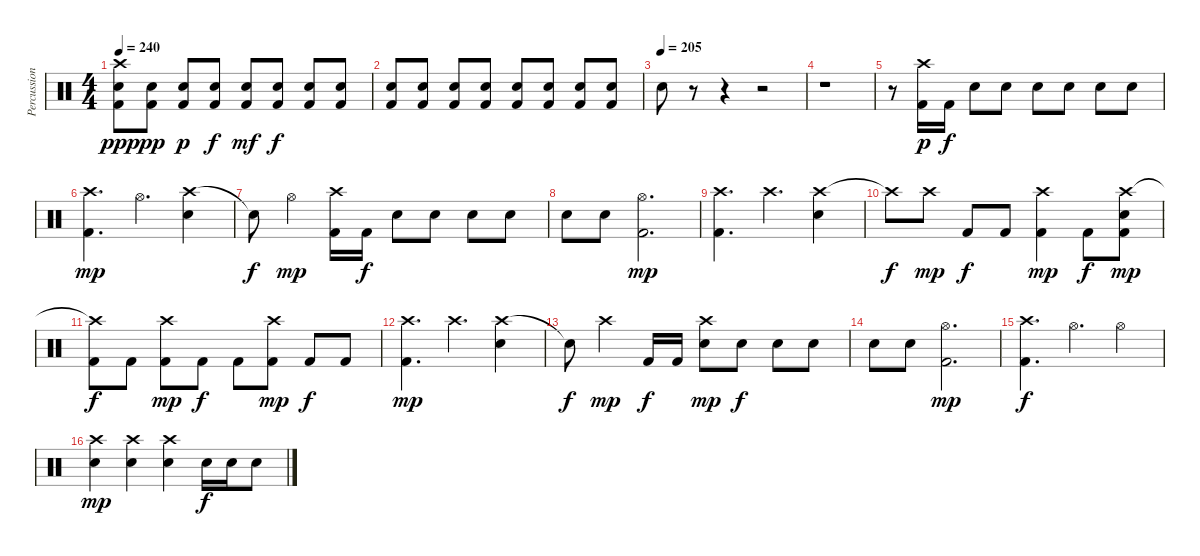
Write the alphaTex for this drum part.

\track ("Percussion" "Percussion") {instrument percussion}
\staff {score}
\articulation defaults
\ts (4 4)
\tempo 240
\clef neutral
\ks c
("Crash high (hit)" "Electric Snare (hit)" "Kick (hit) 2").8{dy ppp} ("Electric Snare (hit)" "Kick (hit) 2").8{dy pp} ("Electric Snare (hit)" "Kick (hit) 2").8{dy p} ("Electric Snare (hit)" "Kick (hit) 2").8{dy f} ("Electric Snare (hit)" "Kick (hit) 2").8{dy mf} ("Electric Snare (hit)" "Kick (hit) 2").8{dy f} ("Electric Snare (hit)" "Kick (hit) 2").8 ("Electric Snare (hit)" "Kick (hit) 2").8 |
("Electric Snare (hit)" "Kick (hit) 2").8 ("Electric Snare (hit)" "Kick (hit) 2").8 ("Electric Snare (hit)" "Kick (hit) 2").8 ("Electric Snare (hit)" "Kick (hit) 2").8 ("Electric Snare (hit)" "Kick (hit) 2").8 ("Electric Snare (hit)" "Kick (hit) 2").8 ("Electric Snare (hit)" "Kick (hit) 2").8 ("Electric Snare (hit)" "Kick (hit) 2").8 |
\tempo (205)
"Electric Snare (hit)".8 r.8 r.4 r.2 |
r.1 |
r.8 ("Crash high (hit)" "Kick (hit) 2").16{dy p} "Kick (hit) 2".16{dy f} "Electric Snare (hit)".8 "Electric Snare (hit)".8 "Electric Snare (hit)".8 "Electric Snare (hit)".8 "Electric Snare (hit)".8 "Electric Snare (hit)".8 |
("Crash high (hit)" "Kick (hit) 2").4{d dy mp} "Hi-Hat (open)".4{d} ("Crash high (hit)" "Electric Snare (hit)").4 |
"Electric Snare (hit)"{t}.8{dy f} "Hi-Hat (open)".4{dy mp} ("Crash high (hit)" "Kick (hit) 2").16 "Kick (hit) 2".16{dy f} "Electric Snare (hit)".8 "Electric Snare (hit)".8 "Electric Snare (hit)".8 "Electric Snare (hit)".8 |
"Electric Snare (hit)".8 "Electric Snare (hit)".8 ("Hi-Hat (open)" "Kick (hit) 2").2{d dy mp} |
("Crash high (hit)" "Kick (hit) 2").4{d} "Crash high (hit)".4{d} ("Crash high (hit)" "Electric Snare (hit)").4 |
"Crash high (hit)"{t}.8{dy f} "Crash high (hit)".8{dy mp} "Kick (hit) 2".8{dy f} "Kick (hit) 2".8 ("Crash high (hit)" "Kick (hit) 2").4{dy mp} "Kick (hit) 2".8{dy f} ("Crash high (hit)" "Electric Snare (hit)" "Kick (hit) 2").8{dy mp} |
("Crash high (hit)"{t} "Kick (hit) 2").8{dy f} "Kick (hit) 2".8 ("Crash high (hit)" "Kick (hit) 2").8{dy mp} "Kick (hit) 2".8{dy f} "Kick (hit) 2".8 ("Crash high (hit)" "Kick (hit) 2").8{dy mp} "Kick (hit) 2".8{dy f} "Kick (hit) 2".8 |
("Crash high (hit)" "Kick (hit) 2").4{d dy mp} "Crash high (hit)".4{d} ("Crash high (hit)" "Electric Snare (hit)").4 |
"Electric Snare (hit)"{t}.8{dy f} "Crash high (hit)".4{dy mp} "Kick (hit) 2".16{dy f} "Kick (hit) 2".16 ("Crash high (hit)" "Electric Snare (hit)").8{dy mp} "Electric Snare (hit)".8{dy f} "Electric Snare (hit)".8 "Electric Snare (hit)".8 |
"Electric Snare (hit)".8 "Electric Snare (hit)".8 ("Hi-Hat (open)" "Kick (hit) 2").2{d dy mp} |
("Crash high (hit)" "Kick (hit) 2").4{d dy f} "Hi-Hat (open)".4{d} "Hi-Hat (open)".4 |
("Crash high (hit)" "Electric Snare (hit)").4{dy mp} ("Crash high (hit)" "Electric Snare (hit)").4 ("Crash high (hit)" "Electric Snare (hit)").4 "Electric Snare (hit)".16{dy f} "Electric Snare (hit)".16 "Electric Snare (hit)".8
